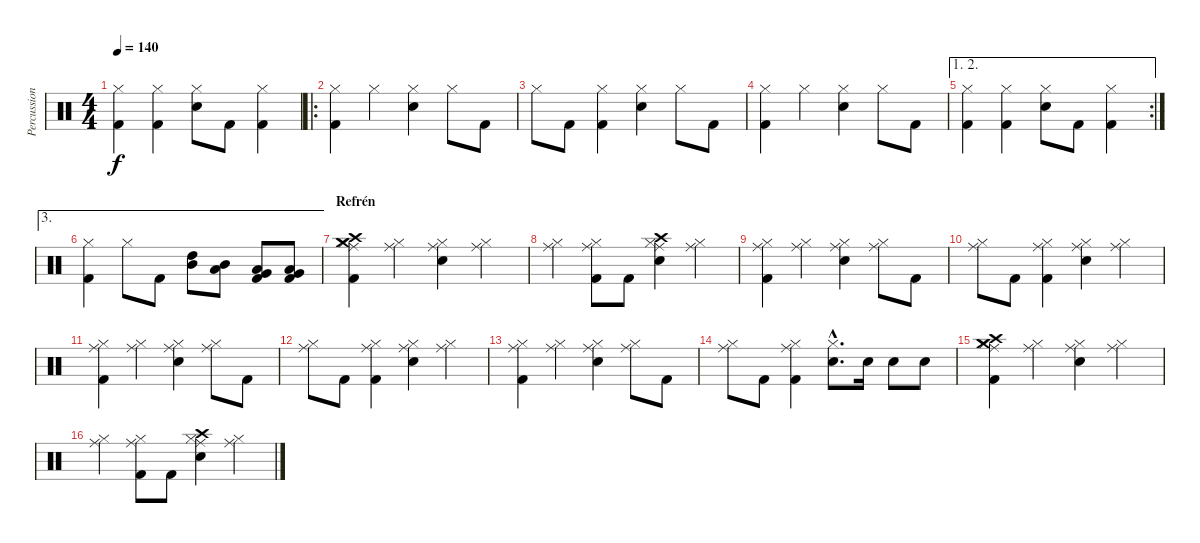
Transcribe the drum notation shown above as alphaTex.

\track ("Percussion" "Percussion") {instrument percussion}
\staff {score}
\articulation defaults
\ts (4 4)
\tempo 140
\clef neutral
\ks c
("Hi-Hat (closed)" "Kick (hit) 2").4{dy f} ("Hi-Hat (closed)" "Kick (hit) 2").4 ("Hi-Hat (closed)" "Electric Snare (hit)").8 "Kick (hit) 2".8 ("Hi-Hat (closed)" "Kick (hit) 2").4 |
\ro
("Hi-Hat (closed)" "Kick (hit) 2").4 "Hi-Hat (closed)".4 ("Hi-Hat (closed)" "Electric Snare (hit)").4 "Hi-Hat (closed)".8 "Kick (hit) 2".8 |
"Hi-Hat (closed)".8 "Kick (hit) 2".8 ("Hi-Hat (closed)" "Kick (hit) 2").4 ("Hi-Hat (closed)" "Electric Snare (hit)").4 "Hi-Hat (closed)".8 "Kick (hit) 2".8 |
("Hi-Hat (closed)" "Kick (hit) 2").4 "Hi-Hat (closed)".4 ("Hi-Hat (closed)" "Electric Snare (hit)").4 "Hi-Hat (closed)".8 "Kick (hit) 2".8 |
\ae (1 2)
\rc 2
("Hi-Hat (closed)" "Kick (hit) 2").4 ("Hi-Hat (closed)" "Kick (hit) 2").4 ("Hi-Hat (closed)" "Electric Snare (hit)").8 "Kick (hit) 2".8 ("Hi-Hat (closed)" "Kick (hit) 2").4 |
\ae 3
("Hi-Hat (closed)" "Kick (hit) 2").4 "Hi-Hat (closed)".8 "Kick (hit) 2".8 ("Mid Tom (hit)" "High Tom (hit)").8 ("Low Tom (hit)" "Mid Tom (hit)").8 ("Very Low Tom (hit)" "Kick (hit) 2" "Low Tom (hit)").8 ("Low Floor Tom (hit)" "Kick (hit) 2" "Very Low Tom (hit)").8 |
\section ("" "Refrén")
("Hi-Hat (closed)" "Crash high (hit)" "Kick (hit) 2" "Crash medium (hit)" "Ride (middle)").4 ("Hi-Hat (closed)" "Ride (middle)").4 ("Hi-Hat (closed)" "Electric Snare (hit)" "Ride (middle)").4 ("Hi-Hat (closed)" "Ride (middle)").4 |
("Hi-Hat (closed)" "Ride (middle)").4 ("Hi-Hat (closed)" "Kick (hit) 2" "Ride (middle)").8 "Kick (hit) 2".8 ("Hi-Hat (closed)" "Crash high (hit)" "Electric Snare (hit)" "Ride (middle)").4 ("Hi-Hat (closed)" "Ride (middle)").4 |
("Hi-Hat (closed)" "Kick (hit) 2" "Ride (middle)").4 ("Hi-Hat (closed)" "Ride (middle)").4 ("Hi-Hat (closed)" "Electric Snare (hit)" "Ride (middle)").4 ("Hi-Hat (closed)" "Ride (middle)").8 "Kick (hit) 2".8 |
("Hi-Hat (closed)" "Ride (middle)").8 "Kick (hit) 2".8 ("Hi-Hat (closed)" "Kick (hit) 2" "Ride (middle)").4 ("Hi-Hat (closed)" "Electric Snare (hit)" "Ride (middle)").4 ("Hi-Hat (closed)" "Ride (middle)").4 |
("Hi-Hat (closed)" "Kick (hit) 2" "Ride (middle)").4 ("Hi-Hat (closed)" "Ride (middle)").4 ("Hi-Hat (closed)" "Electric Snare (hit)" "Ride (middle)").4 ("Hi-Hat (closed)" "Ride (middle)").8 "Kick (hit) 2".8 |
("Hi-Hat (closed)" "Ride (middle)").8 "Kick (hit) 2".8 ("Hi-Hat (closed)" "Kick (hit) 2" "Ride (middle)").4 ("Hi-Hat (closed)" "Electric Snare (hit)" "Ride (middle)").4 ("Hi-Hat (closed)" "Ride (middle)").4 |
("Hi-Hat (closed)" "Kick (hit) 2" "Ride (middle)").4 ("Hi-Hat (closed)" "Ride (middle)").4 ("Hi-Hat (closed)" "Electric Snare (hit)" "Ride (middle)").4 ("Hi-Hat (closed)" "Ride (middle)").8 "Kick (hit) 2".8 |
("Hi-Hat (closed)" "Ride (middle)").8 "Kick (hit) 2".8 ("Hi-Hat (closed)" "Kick (hit) 2" "Ride (middle)").4 ("Hi-Hat (closed)"{hac} "Electric Snare (hit)"{hac}).8{d} "Electric Snare (hit)".16 "Electric Snare (hit)".8 "Electric Snare (hit)".8 |
("Hi-Hat (closed)" "Crash high (hit)" "Kick (hit) 2" "Crash medium (hit)" "Ride (middle)").4 ("Hi-Hat (closed)" "Ride (middle)").4 ("Hi-Hat (closed)" "Electric Snare (hit)" "Ride (middle)").4 ("Hi-Hat (closed)" "Ride (middle)").4 |
("Hi-Hat (closed)" "Ride (middle)").4 ("Hi-Hat (closed)" "Kick (hit) 2" "Ride (middle)").8 "Kick (hit) 2".8 ("Hi-Hat (closed)" "Crash high (hit)" "Electric Snare (hit)" "Ride (middle)").4 ("Hi-Hat (closed)" "Ride (middle)").4
